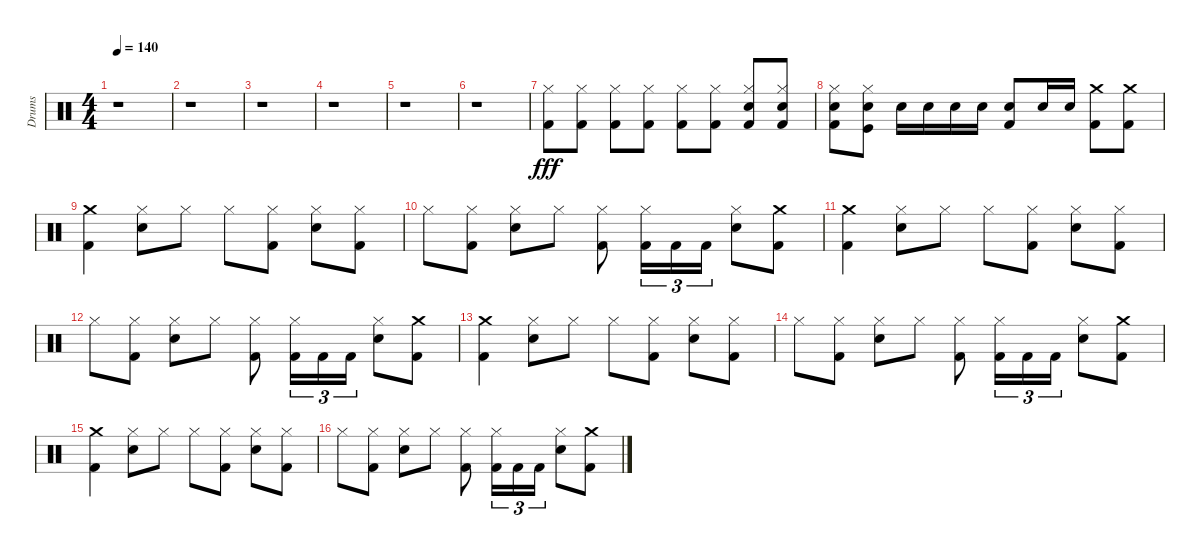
\track ("Drums" "Drums") {instrument percussion}
\staff {score}
\articulation defaults
\ts (4 4)
\tempo 140
\clef neutral
\ks c
r.1{dy fff} |
r.1 |
r.1 |
r.1 |
r.1 |
r.1 |
("Kick (hit) 2" "Hi-Hat (closed)").8 ("Kick (hit) 2" "Hi-Hat (closed)").8 ("Kick (hit) 2" "Hi-Hat (closed)").8 ("Kick (hit) 2" "Hi-Hat (closed)").8 ("Kick (hit) 2" "Hi-Hat (closed)").8 ("Kick (hit) 2" "Hi-Hat (closed)").8 ("Kick (hit) 2" "Snare (hit) 2" "Hi-Hat (closed)").8 ("Kick (hit) 2" "Snare (hit) 2" "Hi-Hat (closed)").8 |
("Kick (hit) 2" "Snare (hit) 2" "Hi-Hat (closed)").8 ("Kick (hit)" "Snare (hit) 2" "Hi-Hat (closed)").8 "Snare (hit) 2".16 "Snare (hit) 2".16 "Snare (hit) 2".16 "Snare (hit) 2".16 ("Kick (hit) 2" "Snare (hit) 2").8 "Snare (hit) 2".16 "Snare (hit) 2".16 ("Kick (hit) 2" "Crash medium (hit)").8 ("Kick (hit) 2" "Crash medium (hit)").8 |
("Crash medium (hit)" "Kick (hit) 2").4 ("Snare (hit) 2" "Hi-Hat (closed)").8 "Hi-Hat (closed)".8 "Hi-Hat (closed)".8 ("Kick (hit) 2" "Hi-Hat (closed)").8 ("Snare (hit) 2" "Hi-Hat (closed)").8 ("Kick (hit) 2" "Hi-Hat (closed)").8 |
"Hi-Hat (closed)".8 ("Kick (hit) 2" "Hi-Hat (closed)").8 ("Snare (hit) 2" "Hi-Hat (closed)").8 "Hi-Hat (closed)".8 ("Kick (hit) 2" "Hi-Hat (closed)").8 ("Kick (hit) 2" "Hi-Hat (closed)").16{tu (3 2)} "Kick (hit) 2".16{tu (3 2)} "Kick (hit) 2".16{tu (3 2)} ("Snare (hit) 2" "Hi-Hat (closed)").8 ("Kick (hit) 2" "Crash medium (hit)").8 |
("Kick (hit) 2" "Crash medium (hit)").4 ("Snare (hit) 2" "Hi-Hat (closed)").8 "Hi-Hat (closed)".8 "Hi-Hat (closed)".8 ("Kick (hit) 2" "Hi-Hat (closed)").8 ("Snare (hit) 2" "Hi-Hat (closed)").8 ("Kick (hit) 2" "Hi-Hat (closed)").8 |
"Hi-Hat (closed)".8 ("Kick (hit) 2" "Hi-Hat (closed)").8 ("Snare (hit) 2" "Hi-Hat (closed)").8 "Hi-Hat (closed)".8 ("Kick (hit) 2" "Hi-Hat (closed)").8 ("Kick (hit) 2" "Hi-Hat (closed)").16{tu (3 2)} "Kick (hit) 2".16{tu (3 2)} "Kick (hit) 2".16{tu (3 2)} ("Snare (hit) 2" "Hi-Hat (closed)").8 ("Kick (hit) 2" "Crash medium (hit)").8 |
("Kick (hit) 2" "Crash medium (hit)").4 ("Snare (hit) 2" "Hi-Hat (closed)").8 "Hi-Hat (closed)".8 "Hi-Hat (closed)".8 ("Kick (hit) 2" "Hi-Hat (closed)").8 ("Snare (hit) 2" "Hi-Hat (closed)").8 ("Kick (hit) 2" "Hi-Hat (closed)").8 |
"Hi-Hat (closed)".8 ("Kick (hit) 2" "Hi-Hat (closed)").8 ("Snare (hit) 2" "Hi-Hat (closed)").8 "Hi-Hat (closed)".8 ("Kick (hit) 2" "Hi-Hat (closed)").8 ("Kick (hit) 2" "Hi-Hat (closed)").16{tu (3 2)} "Kick (hit) 2".16{tu (3 2)} "Kick (hit) 2".16{tu (3 2)} ("Snare (hit) 2" "Hi-Hat (closed)").8 ("Kick (hit) 2" "Crash medium (hit)").8 |
("Kick (hit) 2" "Crash medium (hit)").4 ("Snare (hit) 2" "Hi-Hat (closed)").8 "Hi-Hat (closed)".8 "Hi-Hat (closed)".8 ("Kick (hit) 2" "Hi-Hat (closed)").8 ("Snare (hit) 2" "Hi-Hat (closed)").8 ("Kick (hit) 2" "Hi-Hat (closed)").8 |
"Hi-Hat (closed)".8 ("Kick (hit) 2" "Hi-Hat (closed)").8 ("Snare (hit) 2" "Hi-Hat (closed)").8 "Hi-Hat (closed)".8 ("Kick (hit) 2" "Hi-Hat (closed)").8 ("Kick (hit) 2" "Hi-Hat (closed)").16{tu (3 2)} "Kick (hit) 2".16{tu (3 2)} "Kick (hit) 2".16{tu (3 2)} ("Snare (hit) 2" "Hi-Hat (closed)").8 ("Kick (hit) 2" "Crash medium (hit)").8
